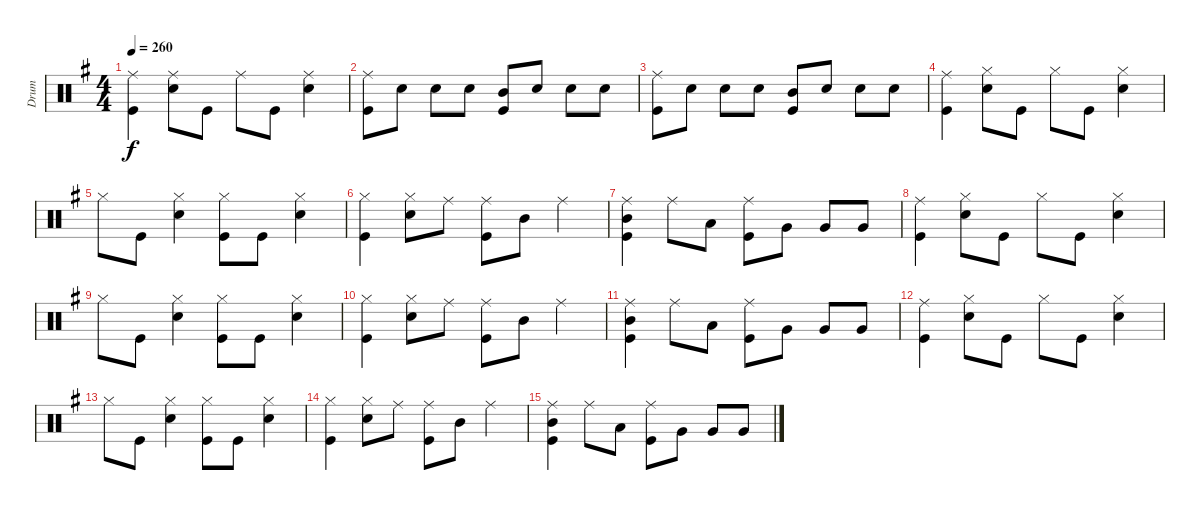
\track ("Drum" "Drum") {instrument percussion}
\staff {score}
\articulation defaults
\ts (4 4)
\tempo 260
\clef neutral
\ks g
("Ride (middle)" "Kick (hit)").4{dy f} ("Ride (middle)" "Snare (hit) 2").8 "Kick (hit)".8 "Ride (middle)".8 "Kick (hit)".8 ("Ride (middle)" "Snare (hit) 2").4 |
("Ride (middle)" "Kick (hit)").8 "Snare (hit) 2".8 "Snare (hit) 2".8 "Snare (hit) 2".8 ("Mid Tom (hit)" "Kick (hit)").8 "Snare (hit) 2".8 "Snare (hit) 2".8 "Snare (hit) 2".8 |
("Ride (middle)" "Kick (hit)").8 "Snare (hit) 2".8 "Snare (hit) 2".8 "Snare (hit) 2".8 ("Mid Tom (hit)" "Kick (hit)").8 "Snare (hit) 2".8 "Snare (hit) 2".8 "Snare (hit) 2".8 |
("Ride (middle)" "Kick (hit)").4 ("Hi-Hat (closed)" "Snare (hit) 2").8 "Kick (hit)".8 "Hi-Hat (closed)".8 "Kick (hit)".8 ("Hi-Hat (closed)" "Snare (hit) 2").4 |
"Hi-Hat (closed)".8 "Kick (hit)".8 ("Hi-Hat (closed)" "Snare (hit) 2").4 ("Hi-Hat (closed)" "Kick (hit)").8 "Kick (hit)".8 ("Hi-Hat (closed)" "Snare (hit) 2").4 |
("Hi-Hat (closed)" "Kick (hit)").4 ("Hi-Hat (closed)" "Snare (hit) 2").8 "Ride (middle)".8 ("Kick (hit)" "Ride (middle)").8 "Mid Tom (hit)".8 "Ride (middle)".4 |
("Ride (middle)" "Mid Tom (hit)" "Kick (hit)").4 "Ride (middle)".8 "Low Tom (hit)".8 ("Ride (middle)" "Kick (hit)").8 "Very Low Tom (hit)".8 "Very Low Tom (hit)".8 "Very Low Tom (hit)".8 |
("Ride (middle)" "Kick (hit)").4 ("Hi-Hat (closed)" "Snare (hit) 2").8 "Kick (hit)".8 "Hi-Hat (closed)".8 "Kick (hit)".8 ("Hi-Hat (closed)" "Snare (hit) 2").4 |
"Hi-Hat (closed)".8 "Kick (hit)".8 ("Hi-Hat (closed)" "Snare (hit) 2").4 ("Hi-Hat (closed)" "Kick (hit)").8 "Kick (hit)".8 ("Hi-Hat (closed)" "Snare (hit) 2").4 |
("Hi-Hat (closed)" "Kick (hit)").4 ("Hi-Hat (closed)" "Snare (hit) 2").8 "Ride (middle)".8 ("Kick (hit)" "Ride (middle)").8 "Mid Tom (hit)".8 "Ride (middle)".4 |
("Ride (middle)" "Mid Tom (hit)" "Kick (hit)").4 "Ride (middle)".8 "Low Tom (hit)".8 ("Ride (middle)" "Kick (hit)").8 "Very Low Tom (hit)".8 "Very Low Tom (hit)".8 "Very Low Tom (hit)".8 |
("Ride (middle)" "Kick (hit)").4 ("Hi-Hat (closed)" "Snare (hit) 2").8 "Kick (hit)".8 "Hi-Hat (closed)".8 "Kick (hit)".8 ("Hi-Hat (closed)" "Snare (hit) 2").4 |
"Hi-Hat (closed)".8 "Kick (hit)".8 ("Hi-Hat (closed)" "Snare (hit) 2").4 ("Hi-Hat (closed)" "Kick (hit)").8 "Kick (hit)".8 ("Hi-Hat (closed)" "Snare (hit) 2").4 |
("Hi-Hat (closed)" "Kick (hit)").4 ("Hi-Hat (closed)" "Snare (hit) 2").8 "Ride (middle)".8 ("Kick (hit)" "Ride (middle)").8 "Mid Tom (hit)".8 "Ride (middle)".4 |
("Ride (middle)" "Mid Tom (hit)" "Kick (hit)").4 "Ride (middle)".8 "Low Tom (hit)".8 ("Ride (middle)" "Kick (hit)").8 "Very Low Tom (hit)".8 "Very Low Tom (hit)".8 "Very Low Tom (hit)".8
